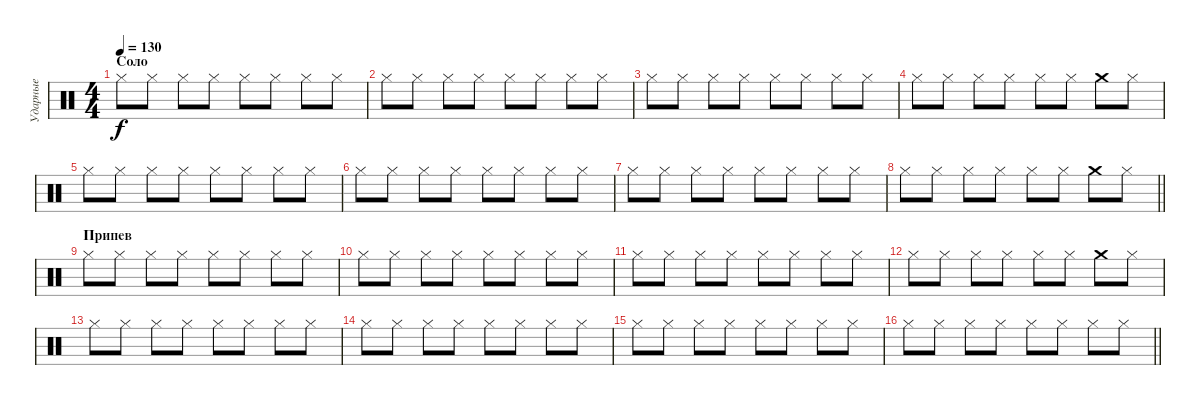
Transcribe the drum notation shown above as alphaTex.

\track ("Ударные" "Ударные") {instrument percussion}
\staff {score}
\articulation defaults
\ts (4 4)
\section ("" "Соло")
\tempo 130
\clef neutral
\ks c "Hi-Hat (closed)".8{dy f} "Hi-Hat (closed)".8 "Hi-Hat (closed)".8 "Hi-Hat (closed)".8 "Hi-Hat (closed)".8 "Hi-Hat (closed)".8 "Hi-Hat (closed)".8 "Hi-Hat (closed)".8
|
"Hi-Hat (closed)".8 "Hi-Hat (closed)".8 "Hi-Hat (closed)".8 "Hi-Hat (closed)".8 "Hi-Hat (closed)".8 "Hi-Hat (closed)".8 "Hi-Hat (closed)".8 "Hi-Hat (closed)".8 |
"Hi-Hat (closed)".8 "Hi-Hat (closed)".8 "Hi-Hat (closed)".8 "Hi-Hat (closed)".8 "Hi-Hat (closed)".8 "Hi-Hat (closed)".8 "Hi-Hat (closed)".8 "Hi-Hat (closed)".8 |
"Hi-Hat (closed)".8 "Hi-Hat (closed)".8 "Hi-Hat (closed)".8 "Hi-Hat (closed)".8 "Hi-Hat (closed)".8 "Hi-Hat (closed)".8 "Crash medium (hit)".8 "Hi-Hat (closed)".8 |
"Hi-Hat (closed)".8 "Hi-Hat (closed)".8 "Hi-Hat (closed)".8 "Hi-Hat (closed)".8 "Hi-Hat (closed)".8 "Hi-Hat (closed)".8 "Hi-Hat (closed)".8 "Hi-Hat (closed)".8 |
"Hi-Hat (closed)".8 "Hi-Hat (closed)".8 "Hi-Hat (closed)".8 "Hi-Hat (closed)".8 "Hi-Hat (closed)".8 "Hi-Hat (closed)".8 "Hi-Hat (closed)".8 "Hi-Hat (closed)".8 |
"Hi-Hat (closed)".8 "Hi-Hat (closed)".8 "Hi-Hat (closed)".8 "Hi-Hat (closed)".8 "Hi-Hat (closed)".8 "Hi-Hat (closed)".8 "Hi-Hat (closed)".8 "Hi-Hat (closed)".8 |
\barLineRight lightlight "Hi-Hat (closed)".8 "Hi-Hat (closed)".8 "Hi-Hat (closed)".8 "Hi-Hat (closed)".8 "Hi-Hat (closed)".8 "Hi-Hat (closed)".8 "Crash medium (hit)".8 "Hi-Hat (closed)".8
|
\section ("" "Припев")
"Hi-Hat (closed)".8 "Hi-Hat (closed)".8 "Hi-Hat (closed)".8 "Hi-Hat (closed)".8 "Hi-Hat (closed)".8 "Hi-Hat (closed)".8 "Hi-Hat (closed)".8 "Hi-Hat (closed)".8 |
"Hi-Hat (closed)".8 "Hi-Hat (closed)".8 "Hi-Hat (closed)".8 "Hi-Hat (closed)".8 "Hi-Hat (closed)".8 "Hi-Hat (closed)".8 "Hi-Hat (closed)".8 "Hi-Hat (closed)".8 |
"Hi-Hat (closed)".8 "Hi-Hat (closed)".8 "Hi-Hat (closed)".8 "Hi-Hat (closed)".8 "Hi-Hat (closed)".8 "Hi-Hat (closed)".8 "Hi-Hat (closed)".8 "Hi-Hat (closed)".8 |
"Hi-Hat (closed)".8 "Hi-Hat (closed)".8 "Hi-Hat (closed)".8 "Hi-Hat (closed)".8 "Hi-Hat (closed)".8 "Hi-Hat (closed)".8 "Crash medium (hit)".8 "Hi-Hat (closed)".8 |
"Hi-Hat (closed)".8 "Hi-Hat (closed)".8 "Hi-Hat (closed)".8 "Hi-Hat (closed)".8 "Hi-Hat (closed)".8 "Hi-Hat (closed)".8 "Hi-Hat (closed)".8 "Hi-Hat (closed)".8 |
"Hi-Hat (closed)".8 "Hi-Hat (closed)".8 "Hi-Hat (closed)".8 "Hi-Hat (closed)".8 "Hi-Hat (closed)".8 "Hi-Hat (closed)".8 "Hi-Hat (closed)".8 "Hi-Hat (closed)".8 |
"Hi-Hat (closed)".8 "Hi-Hat (closed)".8 "Hi-Hat (closed)".8 "Hi-Hat (closed)".8 "Hi-Hat (closed)".8 "Hi-Hat (closed)".8 "Hi-Hat (closed)".8 "Hi-Hat (closed)".8 |
\barLineRight lightlight "Hi-Hat (closed)".8 "Hi-Hat (closed)".8 "Hi-Hat (closed)".8 "Hi-Hat (closed)".8 "Hi-Hat (closed)".8 "Hi-Hat (closed)".8 "Hi-Hat (closed)".8 "Hi-Hat (closed)".8
